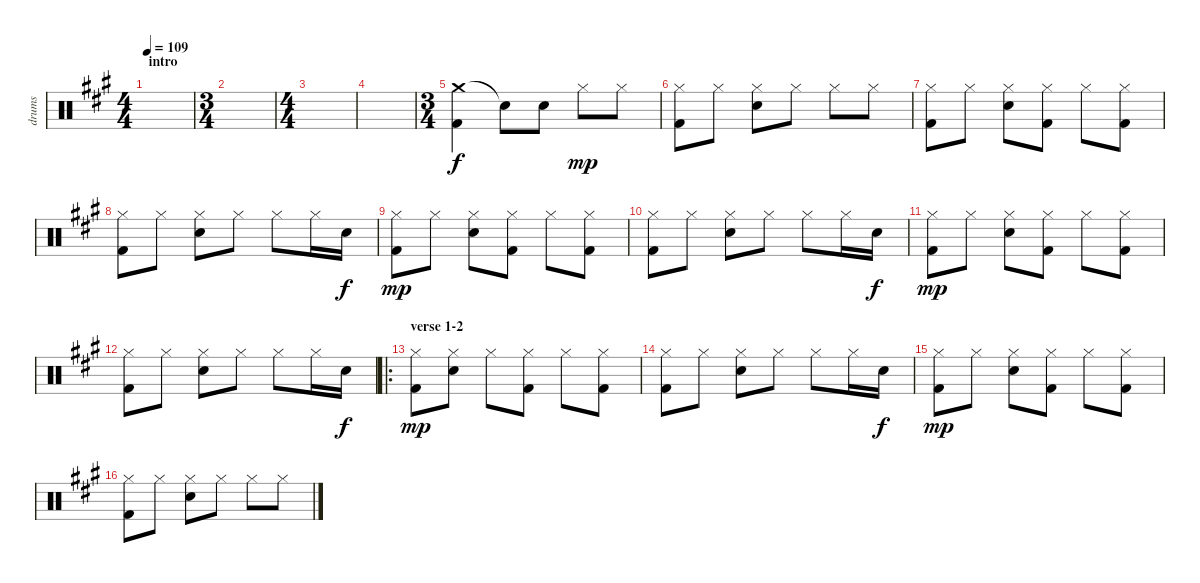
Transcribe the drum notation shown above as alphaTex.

\track ("drums" "drums") {instrument percussion}
\staff {score}
\articulation defaults
\ts (4 4)
\section ("" "intro")
\tempo 109
\clef neutral
\ks a
|
\ts (3 4)
|
\ts (4 4)
|
|
\ts (3 4)
("Crash medium (hit)" "Kick (hit) 2").4 "Snare (hit)"{t}.8 "Snare (hit) 2".8{dy f} "Hi-Hat (closed)".8{dy mp} "Hi-Hat (closed)".8 |
("Hi-Hat (closed)" "Kick (hit) 2").8 "Hi-Hat (closed)".8 ("Hi-Hat (closed)" "Snare (hit) 2").8 "Hi-Hat (closed)".8 "Hi-Hat (closed)".8 "Hi-Hat (closed)".8 |
("Hi-Hat (closed)" "Kick (hit) 2").8 "Hi-Hat (closed)".8 ("Hi-Hat (closed)" "Snare (hit) 2").8 ("Hi-Hat (closed)" "Kick (hit) 2").8 "Hi-Hat (closed)".8 ("Hi-Hat (closed)" "Kick (hit) 2").8 |
("Hi-Hat (closed)" "Kick (hit) 2").8 "Hi-Hat (closed)".8 ("Hi-Hat (closed)" "Snare (hit) 2").8 "Hi-Hat (closed)".8 "Hi-Hat (closed)".8 "Hi-Hat (closed)".16 "Snare (hit) 2".16{dy f} |
("Hi-Hat (closed)" "Kick (hit) 2").8{dy mp} "Hi-Hat (closed)".8 ("Hi-Hat (closed)" "Snare (hit) 2").8 ("Hi-Hat (closed)" "Kick (hit) 2").8 "Hi-Hat (closed)".8 ("Hi-Hat (closed)" "Kick (hit) 2").8 |
("Hi-Hat (closed)" "Kick (hit) 2").8 "Hi-Hat (closed)".8 ("Hi-Hat (closed)" "Snare (hit) 2").8 "Hi-Hat (closed)".8 "Hi-Hat (closed)".8 "Hi-Hat (closed)".16 "Snare (hit) 2".16{dy f} |
("Hi-Hat (closed)" "Kick (hit) 2").8{dy mp} "Hi-Hat (closed)".8 ("Hi-Hat (closed)" "Snare (hit) 2").8 ("Hi-Hat (closed)" "Kick (hit) 2").8 "Hi-Hat (closed)".8 ("Hi-Hat (closed)" "Kick (hit) 2").8 |
("Hi-Hat (closed)" "Kick (hit) 2").8 "Hi-Hat (closed)".8 ("Hi-Hat (closed)" "Snare (hit) 2").8 "Hi-Hat (closed)".8 "Hi-Hat (closed)".8 "Hi-Hat (closed)".16 "Snare (hit) 2".16{dy f} |
\ro
\section ("" "verse 1-2")
("Hi-Hat (closed)" "Kick (hit) 2").8{dy mp} ("Hi-Hat (closed)" "Snare (hit) 2").8 "Hi-Hat (closed)".8 ("Hi-Hat (closed)" "Kick (hit) 2").8 "Hi-Hat (closed)".8 ("Hi-Hat (closed)" "Kick (hit) 2").8 |
("Hi-Hat (closed)" "Kick (hit) 2").8 "Hi-Hat (closed)".8 ("Hi-Hat (closed)" "Snare (hit) 2").8 "Hi-Hat (closed)".8 "Hi-Hat (closed)".8 "Hi-Hat (closed)".16 "Snare (hit) 2".16{dy f} |
("Hi-Hat (closed)" "Kick (hit) 2").8{dy mp} "Hi-Hat (closed)".8 ("Hi-Hat (closed)" "Snare (hit) 2").8 ("Hi-Hat (closed)" "Kick (hit) 2").8 "Hi-Hat (closed)".8 ("Hi-Hat (closed)" "Kick (hit) 2").8 |
("Hi-Hat (closed)" "Kick (hit) 2").8 "Hi-Hat (closed)".8 ("Hi-Hat (closed)" "Snare (hit) 2").8 "Hi-Hat (closed)".8 "Hi-Hat (closed)".8 "Hi-Hat (closed)".8
